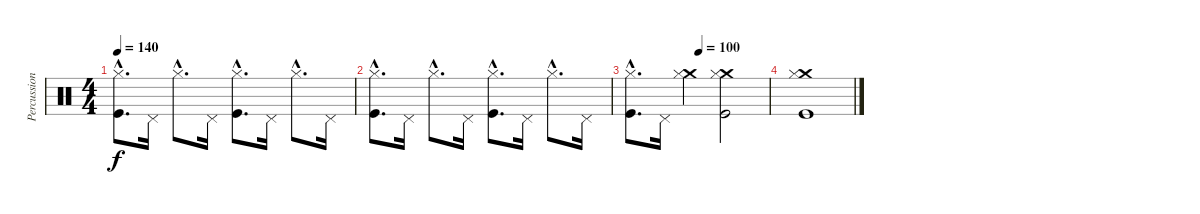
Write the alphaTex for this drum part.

\track ("Percussions" "Percussion") {instrument percussion}
\staff {score}
\articulation defaults
\ts (4 4)
\tempo 140
\clef neutral
\ks c
("Hi-Hat (closed)"{hac} "Kick (hit)"{hac}).8{d dy f} "Pedal Hi-Hat (hit)".16 "Hi-Hat (closed)"{hac}.8{d} "Pedal Hi-Hat (hit)".16 ("Hi-Hat (closed)"{hac} "Kick (hit)"{hac}).8{d} "Pedal Hi-Hat (hit)".16 "Hi-Hat (closed)"{hac}.8{d} "Pedal Hi-Hat (hit)".16 |
("Hi-Hat (closed)"{hac} "Kick (hit)"{hac}).8{d} "Pedal Hi-Hat (hit)".16 "Hi-Hat (closed)"{hac}.8{d} "Pedal Hi-Hat (hit)".16 ("Hi-Hat (closed)"{hac} "Kick (hit)"{hac}).8{d} "Pedal Hi-Hat (hit)".16 "Hi-Hat (closed)"{hac}.8{d} "Pedal Hi-Hat (hit)".16 |
\tempo (100 0.5)
("Hi-Hat (closed)"{hac} "Kick (hit)"{hac}).8{d} "Pedal Hi-Hat (hit)".16 ("Crash medium (hit)" "Hi-Hat (closed)").4 ("Crash medium (hit)" "Hi-Hat (closed)" "Kick (hit)").2 |
("Crash medium (hit)" "Hi-Hat (closed)" "Kick (hit)").1
